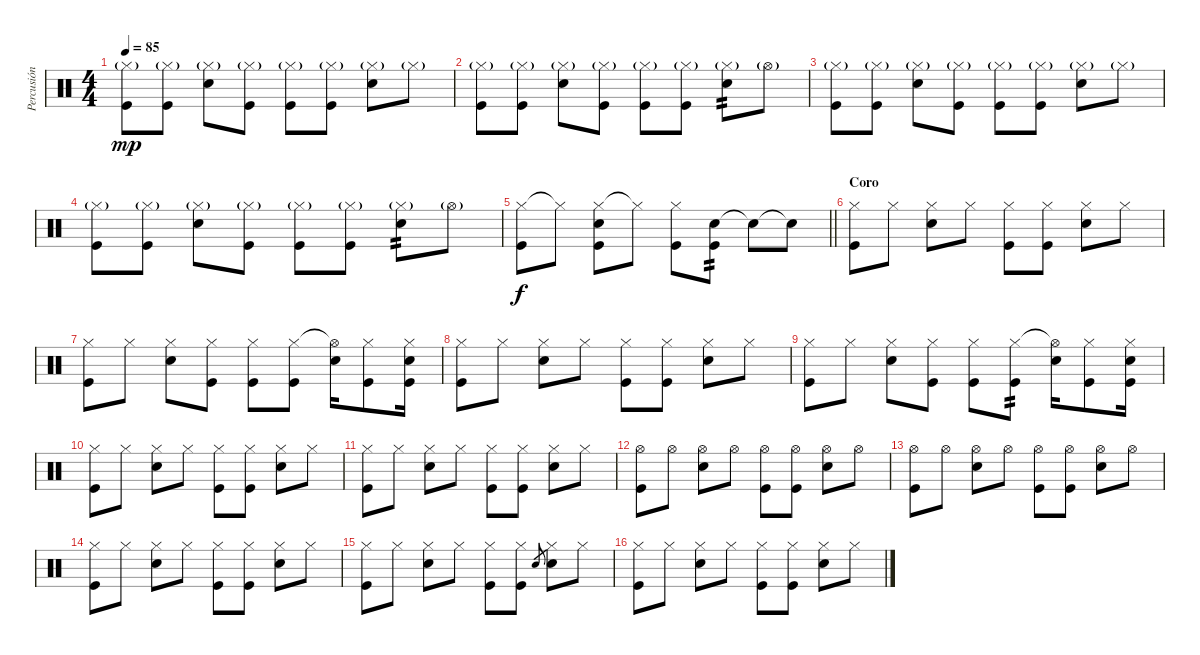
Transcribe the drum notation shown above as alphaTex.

\track ("Percusión" "Percusión") {instrument percussion}
\staff {score}
\articulation defaults
\ts (4 4)
\tempo 85
\clef neutral
\ks c
("Hi-Hat (closed)"{g} "Kick (hit)").8{dy mp} ("Hi-Hat (closed)"{g} "Kick (hit)").8 ("Hi-Hat (closed)"{g} "Electric Snare (hit)").8 ("Hi-Hat (closed)"{g} "Kick (hit)").8 ("Hi-Hat (closed)"{g} "Kick (hit)").8 ("Hi-Hat (closed)"{g} "Kick (hit)").8 ("Hi-Hat (closed)"{g} "Electric Snare (hit)").8 "Hi-Hat (closed)"{g}.8 |
("Hi-Hat (closed)"{g} "Kick (hit)").8 ("Hi-Hat (closed)"{g} "Kick (hit)").8 ("Hi-Hat (closed)"{g} "Electric Snare (hit)").8 ("Hi-Hat (closed)"{g} "Kick (hit)").8 ("Hi-Hat (closed)"{g} "Kick (hit)").8 ("Hi-Hat (closed)"{g} "Kick (hit)").8 ("Hi-Hat (closed)"{g} "Electric Snare (hit)").8{tp 2} "Hi-Hat (open)"{g}.8 |
("Hi-Hat (closed)"{g} "Kick (hit)").8 ("Hi-Hat (closed)"{g} "Kick (hit)").8 ("Hi-Hat (closed)"{g} "Electric Snare (hit)").8 ("Hi-Hat (closed)"{g} "Kick (hit)").8 ("Hi-Hat (closed)"{g} "Kick (hit)").8 ("Hi-Hat (closed)"{g} "Kick (hit)").8 ("Hi-Hat (closed)"{g} "Electric Snare (hit)").8 "Hi-Hat (closed)"{g}.8 |
("Hi-Hat (closed)"{g} "Kick (hit)").8 ("Hi-Hat (closed)"{g} "Kick (hit)").8 ("Hi-Hat (closed)"{g} "Electric Snare (hit)").8 ("Hi-Hat (closed)"{g} "Kick (hit)").8 ("Hi-Hat (closed)"{g} "Kick (hit)").8 ("Hi-Hat (closed)"{g} "Kick (hit)").8 ("Hi-Hat (closed)"{g} "Electric Snare (hit)").8{tp 2} "Hi-Hat (open)"{g}.8 |
\barLineRight lightlight
("Hi-Hat (closed)" "Kick (hit)").8{dy f} "Hi-Hat (closed)"{t}.8 ("Hi-Hat (closed)" "Electric Snare (hit)" "Kick (hit)").8 "Hi-Hat (closed)"{t}.8 ("Hi-Hat (closed)" "Kick (hit)").8 ("Electric Snare (hit)" "Kick (hit)").8{tp 2} "Snare (hit)"{t}.8 "Snare (hit)"{t}.8 |
\section ("" "Coro")
("Hi-Hat (closed)" "Kick (hit)").8 "Hi-Hat (closed)".8 ("Hi-Hat (closed)" "Electric Snare (hit)").8 "Hi-Hat (closed)".8 ("Hi-Hat (closed)" "Kick (hit)").8 ("Hi-Hat (closed)" "Kick (hit)").8 ("Hi-Hat (closed)" "Electric Snare (hit)").8 "Hi-Hat (closed)".8 |
("Hi-Hat (closed)" "Kick (hit)").8 "Hi-Hat (closed)".8 ("Hi-Hat (closed)" "Electric Snare (hit)").8 ("Hi-Hat (closed)" "Kick (hit)").8 ("Hi-Hat (closed)" "Kick (hit)").8 ("Hi-Hat (closed)" "Kick (hit)").8 ("Hi-Hat (open)"{t} "Electric Snare (hit)").16 ("Hi-Hat (closed)" "Kick (hit)").8 ("Hi-Hat (closed)" "Electric Snare (hit)" "Kick (hit)").16 |
("Hi-Hat (closed)" "Kick (hit)").8 "Hi-Hat (closed)".8 ("Hi-Hat (closed)" "Electric Snare (hit)").8 "Hi-Hat (closed)".8 ("Hi-Hat (closed)" "Kick (hit)").8 ("Hi-Hat (closed)" "Kick (hit)").8 ("Hi-Hat (closed)" "Electric Snare (hit)").8 "Hi-Hat (closed)".8 |
("Hi-Hat (closed)" "Kick (hit)").8 "Hi-Hat (closed)".8 ("Hi-Hat (closed)" "Electric Snare (hit)").8 ("Hi-Hat (closed)" "Kick (hit)").8 ("Hi-Hat (closed)" "Kick (hit)").8 ("Hi-Hat (closed)" "Kick (hit)").8{tp 2} ("Hi-Hat (open)"{t} "Electric Snare (hit)").16 ("Hi-Hat (closed)" "Kick (hit)").8 ("Hi-Hat (closed)" "Electric Snare (hit)" "Kick (hit)").16 |
("Hi-Hat (closed)" "Kick (hit)").8 "Hi-Hat (closed)".8 ("Hi-Hat (closed)" "Electric Snare (hit)").8 "Hi-Hat (closed)".8 ("Hi-Hat (closed)" "Kick (hit)").8 ("Hi-Hat (closed)" "Kick (hit)").8 ("Hi-Hat (closed)" "Electric Snare (hit)").8 "Hi-Hat (closed)".8 |
("Hi-Hat (closed)" "Kick (hit)").8 "Hi-Hat (closed)".8 ("Hi-Hat (closed)" "Electric Snare (hit)").8 "Hi-Hat (closed)".8 ("Hi-Hat (closed)" "Kick (hit)").8 ("Hi-Hat (closed)" "Kick (hit)").8 ("Hi-Hat (closed)" "Electric Snare (hit)").8 "Hi-Hat (closed)".8 |
("Hi-Hat (open)" "Kick (hit)").8 "Hi-Hat (open)".8 ("Hi-Hat (open)" "Electric Snare (hit)").8 "Hi-Hat (open)".8 ("Hi-Hat (open)" "Kick (hit)").8 ("Hi-Hat (open)" "Kick (hit)").8 ("Hi-Hat (open)" "Electric Snare (hit)").8 "Hi-Hat (open)".8 |
("Hi-Hat (open)" "Kick (hit)").8 "Hi-Hat (open)".8 ("Hi-Hat (open)" "Electric Snare (hit)").8 "Hi-Hat (open)".8 ("Hi-Hat (open)" "Kick (hit)").8 ("Hi-Hat (open)" "Kick (hit)").8 ("Hi-Hat (open)" "Electric Snare (hit)").8 "Hi-Hat (open)".8 |
("Hi-Hat (closed)" "Kick (hit)").8 "Hi-Hat (closed)".8 ("Hi-Hat (closed)" "Electric Snare (hit)").8 "Hi-Hat (closed)".8 ("Hi-Hat (closed)" "Kick (hit)").8 ("Hi-Hat (closed)" "Kick (hit)").8 ("Hi-Hat (closed)" "Electric Snare (hit)").8 "Hi-Hat (closed)".8 |
("Hi-Hat (closed)" "Kick (hit)").8 "Hi-Hat (closed)".8 ("Hi-Hat (closed)" "Electric Snare (hit)").8 "Hi-Hat (closed)".8 ("Hi-Hat (closed)" "Kick (hit)").8 ("Hi-Hat (closed)" "Kick (hit)").8 "Electric Snare (hit)".8{gr} ("Hi-Hat (closed)" "Electric Snare (hit)").8 "Hi-Hat (closed)".8 |
("Hi-Hat (closed)" "Kick (hit)").8 "Hi-Hat (closed)".8 ("Hi-Hat (closed)" "Electric Snare (hit)").8 "Hi-Hat (closed)".8 ("Hi-Hat (closed)" "Kick (hit)").8 ("Hi-Hat (closed)" "Kick (hit)").8 ("Hi-Hat (closed)" "Electric Snare (hit)").8 "Hi-Hat (closed)".8
